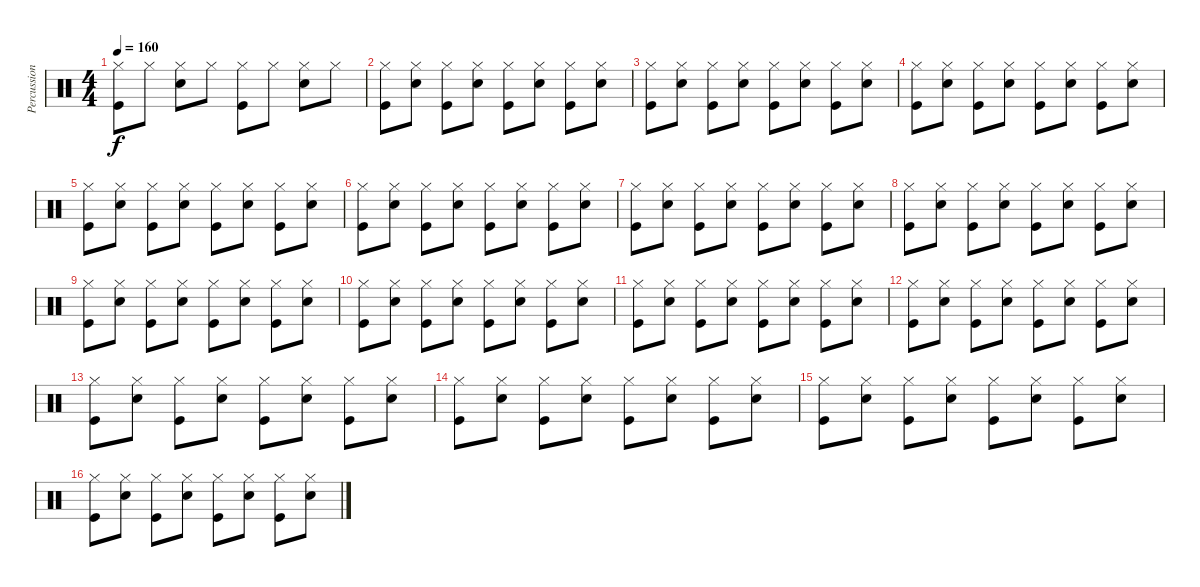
\track ("Percussion" "Percussion") {instrument percussion}
\staff {score}
\articulation defaults
\ts (4 4)
\tempo 160
\clef neutral
\ks c
("Hi-Hat (closed)" "Kick (hit)").8{dy f} "Hi-Hat (closed)".8 ("Hi-Hat (closed)" "Snare (hit) 2").8 "Hi-Hat (closed)".8 ("Hi-Hat (closed)" "Kick (hit)").8 "Hi-Hat (closed)".8 ("Hi-Hat (closed)" "Snare (hit) 2").8 "Hi-Hat (closed)".8 |
("Hi-Hat (closed)" "Kick (hit)").8 ("Hi-Hat (closed)" "Snare (hit) 2").8 ("Hi-Hat (closed)" "Kick (hit)").8 ("Hi-Hat (closed)" "Snare (hit) 2").8 ("Hi-Hat (closed)" "Kick (hit)").8 ("Hi-Hat (closed)" "Snare (hit) 2").8 ("Hi-Hat (closed)" "Kick (hit)").8 ("Hi-Hat (closed)" "Snare (hit) 2").8 |
("Hi-Hat (closed)" "Kick (hit)").8 ("Hi-Hat (closed)" "Snare (hit) 2").8 ("Hi-Hat (closed)" "Kick (hit)").8 ("Hi-Hat (closed)" "Snare (hit) 2").8 ("Hi-Hat (closed)" "Kick (hit)").8 ("Hi-Hat (closed)" "Snare (hit) 2").8 ("Hi-Hat (closed)" "Kick (hit)").8 ("Hi-Hat (closed)" "Snare (hit) 2").8 |
("Hi-Hat (closed)" "Kick (hit)").8 ("Hi-Hat (closed)" "Snare (hit) 2").8 ("Hi-Hat (closed)" "Kick (hit)").8 ("Hi-Hat (closed)" "Snare (hit) 2").8 ("Hi-Hat (closed)" "Kick (hit)").8 ("Hi-Hat (closed)" "Snare (hit) 2").8 ("Hi-Hat (closed)" "Kick (hit)").8 ("Hi-Hat (closed)" "Snare (hit) 2").8 |
("Hi-Hat (closed)" "Kick (hit)").8 ("Hi-Hat (closed)" "Snare (hit) 2").8 ("Hi-Hat (closed)" "Kick (hit)").8 ("Hi-Hat (closed)" "Snare (hit) 2").8 ("Hi-Hat (closed)" "Kick (hit)").8 ("Hi-Hat (closed)" "Snare (hit) 2").8 ("Hi-Hat (closed)" "Kick (hit)").8 ("Hi-Hat (closed)" "Snare (hit) 2").8 |
("Hi-Hat (closed)" "Kick (hit)").8 ("Hi-Hat (closed)" "Snare (hit) 2").8 ("Hi-Hat (closed)" "Kick (hit)").8 ("Hi-Hat (closed)" "Snare (hit) 2").8 ("Hi-Hat (closed)" "Kick (hit)").8 ("Hi-Hat (closed)" "Snare (hit) 2").8 ("Hi-Hat (closed)" "Kick (hit)").8 ("Hi-Hat (closed)" "Snare (hit) 2").8 |
("Hi-Hat (closed)" "Kick (hit)").8 ("Hi-Hat (closed)" "Snare (hit) 2").8 ("Hi-Hat (closed)" "Kick (hit)").8 ("Hi-Hat (closed)" "Snare (hit) 2").8 ("Hi-Hat (closed)" "Kick (hit)").8 ("Hi-Hat (closed)" "Snare (hit) 2").8 ("Hi-Hat (closed)" "Kick (hit)").8 ("Hi-Hat (closed)" "Snare (hit) 2").8 |
("Hi-Hat (closed)" "Kick (hit)").8 ("Hi-Hat (closed)" "Snare (hit) 2").8 ("Hi-Hat (closed)" "Kick (hit)").8 ("Hi-Hat (closed)" "Snare (hit) 2").8 ("Hi-Hat (closed)" "Kick (hit)").8 ("Hi-Hat (closed)" "Snare (hit) 2").8 ("Hi-Hat (closed)" "Kick (hit)").8 ("Hi-Hat (closed)" "Snare (hit) 2").8 |
("Hi-Hat (closed)" "Kick (hit)").8 ("Hi-Hat (closed)" "Snare (hit) 2").8 ("Hi-Hat (closed)" "Kick (hit)").8 ("Hi-Hat (closed)" "Snare (hit) 2").8 ("Hi-Hat (closed)" "Kick (hit)").8 ("Hi-Hat (closed)" "Snare (hit) 2").8 ("Hi-Hat (closed)" "Kick (hit)").8 ("Hi-Hat (closed)" "Snare (hit) 2").8 |
("Hi-Hat (closed)" "Kick (hit)").8 ("Hi-Hat (closed)" "Snare (hit) 2").8 ("Hi-Hat (closed)" "Kick (hit)").8 ("Hi-Hat (closed)" "Snare (hit) 2").8 ("Hi-Hat (closed)" "Kick (hit)").8 ("Hi-Hat (closed)" "Snare (hit) 2").8 ("Hi-Hat (closed)" "Kick (hit)").8 ("Hi-Hat (closed)" "Snare (hit) 2").8 |
("Hi-Hat (closed)" "Kick (hit)").8 ("Hi-Hat (closed)" "Snare (hit) 2").8 ("Hi-Hat (closed)" "Kick (hit)").8 ("Hi-Hat (closed)" "Snare (hit) 2").8 ("Hi-Hat (closed)" "Kick (hit)").8 ("Hi-Hat (closed)" "Snare (hit) 2").8 ("Hi-Hat (closed)" "Kick (hit)").8 ("Hi-Hat (closed)" "Snare (hit) 2").8 |
("Hi-Hat (closed)" "Kick (hit)").8 ("Hi-Hat (closed)" "Snare (hit) 2").8 ("Hi-Hat (closed)" "Kick (hit)").8 ("Hi-Hat (closed)" "Snare (hit) 2").8 ("Hi-Hat (closed)" "Kick (hit)").8 ("Hi-Hat (closed)" "Snare (hit) 2").8 ("Hi-Hat (closed)" "Kick (hit)").8 ("Hi-Hat (closed)" "Snare (hit) 2").8 |
("Hi-Hat (closed)" "Kick (hit)").8 ("Hi-Hat (closed)" "Snare (hit) 2").8 ("Hi-Hat (closed)" "Kick (hit)").8 ("Hi-Hat (closed)" "Snare (hit) 2").8 ("Hi-Hat (closed)" "Kick (hit)").8 ("Hi-Hat (closed)" "Snare (hit) 2").8 ("Hi-Hat (closed)" "Kick (hit)").8 ("Hi-Hat (closed)" "Snare (hit) 2").8 |
("Hi-Hat (closed)" "Kick (hit)").8 ("Hi-Hat (closed)" "Snare (hit) 2").8 ("Hi-Hat (closed)" "Kick (hit)").8 ("Hi-Hat (closed)" "Snare (hit) 2").8 ("Hi-Hat (closed)" "Kick (hit)").8 ("Hi-Hat (closed)" "Snare (hit) 2").8 ("Hi-Hat (closed)" "Kick (hit)").8 ("Hi-Hat (closed)" "Snare (hit) 2").8 |
("Hi-Hat (closed)" "Kick (hit)").8 ("Hi-Hat (closed)" "Snare (hit) 2").8 ("Hi-Hat (closed)" "Kick (hit)").8 ("Hi-Hat (closed)" "Snare (hit) 2").8 ("Hi-Hat (closed)" "Kick (hit)").8 ("Hi-Hat (closed)" "Snare (hit) 2").8 ("Hi-Hat (closed)" "Kick (hit)").8 ("Hi-Hat (closed)" "Snare (hit) 2").8 |
("Hi-Hat (closed)" "Kick (hit)").8 ("Hi-Hat (closed)" "Snare (hit) 2").8 ("Hi-Hat (closed)" "Kick (hit)").8 ("Hi-Hat (closed)" "Snare (hit) 2").8 ("Hi-Hat (closed)" "Kick (hit)").8 ("Hi-Hat (closed)" "Snare (hit) 2").8 ("Hi-Hat (closed)" "Kick (hit)").8 ("Hi-Hat (closed)" "Snare (hit) 2").8
